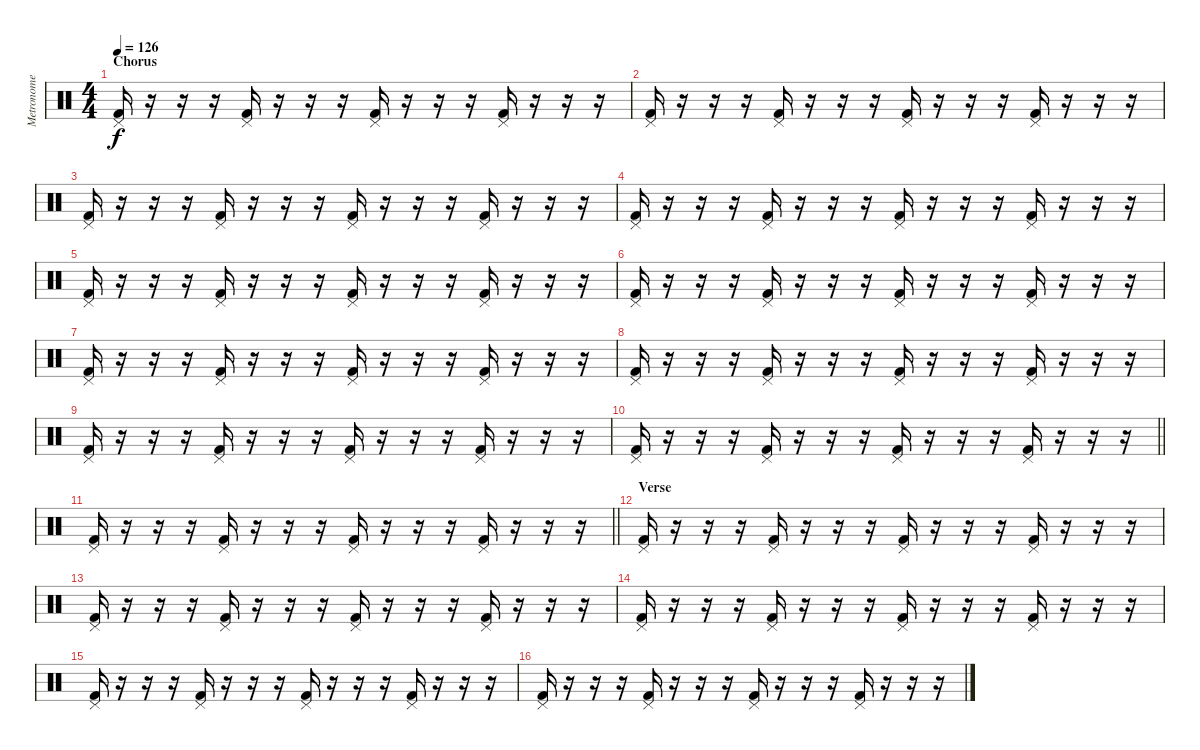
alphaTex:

\track ("Metronome" "Metronome") {mute instrument percussion}
\staff {score}
\articulation defaults
\ts (4 4)
\section ("" "Chorus")
\tempo 126
\clef neutral
\ks c
("Pedal Hi-Hat (hit)" "Kick (hit) 2").16{dy f} r.16 r.16 r.16 ("Pedal Hi-Hat (hit)" "Kick (hit) 2").16 r.16 r.16 r.16 ("Pedal Hi-Hat (hit)" "Kick (hit) 2").16 r.16 r.16 r.16 ("Pedal Hi-Hat (hit)" "Kick (hit) 2").16 r.16 r.16 r.16 |
("Pedal Hi-Hat (hit)" "Kick (hit) 2").16 r.16 r.16 r.16 ("Pedal Hi-Hat (hit)" "Kick (hit) 2").16 r.16 r.16 r.16 ("Pedal Hi-Hat (hit)" "Kick (hit) 2").16 r.16 r.16 r.16 ("Pedal Hi-Hat (hit)" "Kick (hit) 2").16 r.16 r.16 r.16 |
("Pedal Hi-Hat (hit)" "Kick (hit) 2").16 r.16 r.16 r.16 ("Pedal Hi-Hat (hit)" "Kick (hit) 2").16 r.16 r.16 r.16 ("Pedal Hi-Hat (hit)" "Kick (hit) 2").16 r.16 r.16 r.16 ("Pedal Hi-Hat (hit)" "Kick (hit) 2").16 r.16 r.16 r.16 |
("Pedal Hi-Hat (hit)" "Kick (hit) 2").16 r.16 r.16 r.16 ("Pedal Hi-Hat (hit)" "Kick (hit) 2").16 r.16 r.16 r.16 ("Pedal Hi-Hat (hit)" "Kick (hit) 2").16 r.16 r.16 r.16 ("Pedal Hi-Hat (hit)" "Kick (hit) 2").16 r.16 r.16 r.16 |
("Pedal Hi-Hat (hit)" "Kick (hit) 2").16 r.16 r.16 r.16 ("Pedal Hi-Hat (hit)" "Kick (hit) 2").16 r.16 r.16 r.16 ("Pedal Hi-Hat (hit)" "Kick (hit) 2").16 r.16 r.16 r.16 ("Pedal Hi-Hat (hit)" "Kick (hit) 2").16 r.16 r.16 r.16 |
("Pedal Hi-Hat (hit)" "Kick (hit) 2").16 r.16 r.16 r.16 ("Pedal Hi-Hat (hit)" "Kick (hit) 2").16 r.16 r.16 r.16 ("Pedal Hi-Hat (hit)" "Kick (hit) 2").16 r.16 r.16 r.16 ("Pedal Hi-Hat (hit)" "Kick (hit) 2").16 r.16 r.16 r.16 |
("Pedal Hi-Hat (hit)" "Kick (hit) 2").16 r.16 r.16 r.16 ("Pedal Hi-Hat (hit)" "Kick (hit) 2").16 r.16 r.16 r.16 ("Pedal Hi-Hat (hit)" "Kick (hit) 2").16 r.16 r.16 r.16 ("Pedal Hi-Hat (hit)" "Kick (hit) 2").16 r.16 r.16 r.16 |
("Pedal Hi-Hat (hit)" "Kick (hit) 2").16 r.16 r.16 r.16 ("Pedal Hi-Hat (hit)" "Kick (hit) 2").16 r.16 r.16 r.16 ("Pedal Hi-Hat (hit)" "Kick (hit) 2").16 r.16 r.16 r.16 ("Pedal Hi-Hat (hit)" "Kick (hit) 2").16 r.16 r.16 r.16 |
("Pedal Hi-Hat (hit)" "Kick (hit) 2").16 r.16 r.16 r.16 ("Pedal Hi-Hat (hit)" "Kick (hit) 2").16 r.16 r.16 r.16 ("Pedal Hi-Hat (hit)" "Kick (hit) 2").16 r.16 r.16 r.16 ("Pedal Hi-Hat (hit)" "Kick (hit) 2").16 r.16 r.16 r.16 |
\barLineRight lightlight
("Pedal Hi-Hat (hit)" "Kick (hit) 2").16 r.16 r.16 r.16 ("Pedal Hi-Hat (hit)" "Kick (hit) 2").16 r.16 r.16 r.16 ("Pedal Hi-Hat (hit)" "Kick (hit) 2").16 r.16 r.16 r.16 ("Pedal Hi-Hat (hit)" "Kick (hit) 2").16 r.16 r.16 r.16 |
\barLineRight lightlight
("Pedal Hi-Hat (hit)" "Kick (hit) 2").16 r.16 r.16 r.16 ("Pedal Hi-Hat (hit)" "Kick (hit) 2").16 r.16 r.16 r.16 ("Pedal Hi-Hat (hit)" "Kick (hit) 2").16 r.16 r.16 r.16 ("Pedal Hi-Hat (hit)" "Kick (hit) 2").16 r.16 r.16 r.16 |
\section ("" "Verse")
("Pedal Hi-Hat (hit)" "Kick (hit) 2").16 r.16 r.16 r.16 ("Pedal Hi-Hat (hit)" "Kick (hit) 2").16 r.16 r.16 r.16 ("Pedal Hi-Hat (hit)" "Kick (hit) 2").16 r.16 r.16 r.16 ("Pedal Hi-Hat (hit)" "Kick (hit) 2").16 r.16 r.16 r.16 |
("Pedal Hi-Hat (hit)" "Kick (hit) 2").16 r.16 r.16 r.16 ("Pedal Hi-Hat (hit)" "Kick (hit) 2").16 r.16 r.16 r.16 ("Pedal Hi-Hat (hit)" "Kick (hit) 2").16 r.16 r.16 r.16 ("Pedal Hi-Hat (hit)" "Kick (hit) 2").16 r.16 r.16 r.16 |
("Pedal Hi-Hat (hit)" "Kick (hit) 2").16 r.16 r.16 r.16 ("Pedal Hi-Hat (hit)" "Kick (hit) 2").16 r.16 r.16 r.16 ("Pedal Hi-Hat (hit)" "Kick (hit) 2").16 r.16 r.16 r.16 ("Pedal Hi-Hat (hit)" "Kick (hit) 2").16 r.16 r.16 r.16 |
("Pedal Hi-Hat (hit)" "Kick (hit) 2").16 r.16 r.16 r.16 ("Pedal Hi-Hat (hit)" "Kick (hit) 2").16 r.16 r.16 r.16 ("Pedal Hi-Hat (hit)" "Kick (hit) 2").16 r.16 r.16 r.16 ("Pedal Hi-Hat (hit)" "Kick (hit) 2").16 r.16 r.16 r.16 |
("Pedal Hi-Hat (hit)" "Kick (hit) 2").16 r.16 r.16 r.16 ("Pedal Hi-Hat (hit)" "Kick (hit) 2").16 r.16 r.16 r.16 ("Pedal Hi-Hat (hit)" "Kick (hit) 2").16 r.16 r.16 r.16 ("Pedal Hi-Hat (hit)" "Kick (hit) 2").16 r.16 r.16 r.16
